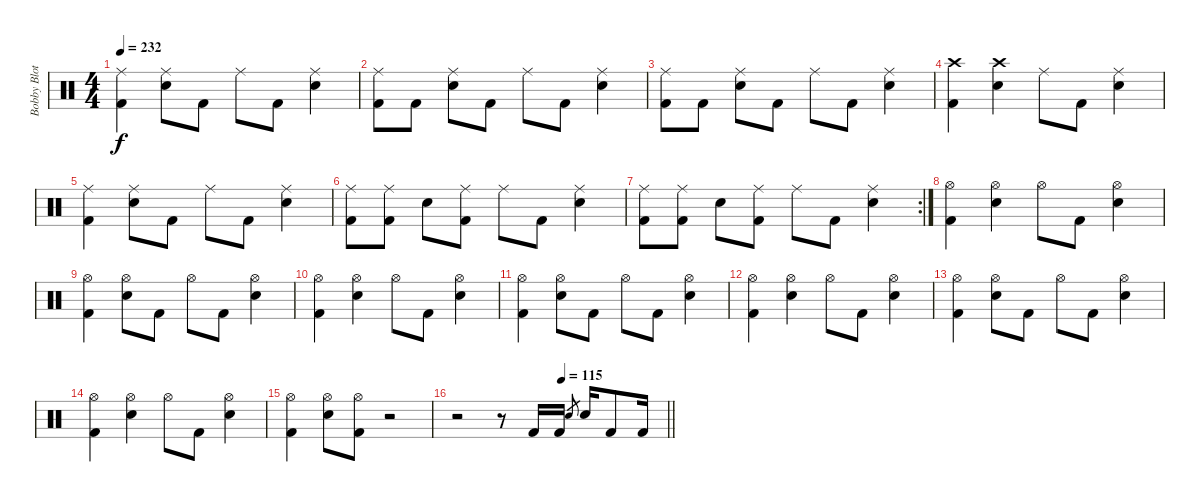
\track ("Bobby Blotzer" "Bobby Blot") {instrument percussion}
\staff {score}
\articulation defaults
\ts (4 4)
\tempo 232
\clef neutral
\ks c
("Ride (middle)" "Kick (hit) 2").4{dy f} ("Ride (middle)" "Electric Snare (hit)").8 "Kick (hit) 2".8 "Ride (middle)".8 "Kick (hit) 2".8 ("Ride (middle)" "Electric Snare (hit)").4 |
("Ride (middle)" "Kick (hit) 2").8 "Kick (hit) 2".8 ("Ride (middle)" "Electric Snare (hit)").8 "Kick (hit) 2".8 "Ride (middle)".8 "Kick (hit) 2".8 ("Ride (middle)" "Electric Snare (hit)").4 |
("Ride (middle)" "Kick (hit) 2").8 "Kick (hit) 2".8 ("Ride (middle)" "Electric Snare (hit)").8 "Kick (hit) 2".8 "Ride (middle)".8 "Kick (hit) 2".8 ("Ride (middle)" "Electric Snare (hit)").4 |
("Crash high (hit)" "Kick (hit) 2").4 ("Crash high (hit)" "Electric Snare (hit)").4 "Ride (middle)".8 "Kick (hit) 2".8 ("Ride (middle)" "Electric Snare (hit)").4 |
("Ride (middle)" "Kick (hit) 2").4 ("Ride (middle)" "Electric Snare (hit)").8 "Kick (hit) 2".8 "Ride (middle)".8 "Kick (hit) 2".8 ("Ride (middle)" "Electric Snare (hit)").4 |
("Ride (middle)" "Kick (hit) 2").8 ("Ride (middle)" "Kick (hit) 2").8 "Electric Snare (hit)".8 ("Ride (middle)" "Kick (hit) 2").8 "Ride (middle)".8 "Kick (hit) 2".8 ("Ride (middle)" "Electric Snare (hit)").4 |
\rc 2
("Ride (middle)" "Kick (hit) 2").8 ("Ride (middle)" "Kick (hit) 2").8 "Electric Snare (hit)".8 ("Ride (middle)" "Kick (hit) 2").8 "Ride (middle)".8 "Kick (hit) 2".8 ("Ride (middle)" "Electric Snare (hit)").4 |
("Hi-Hat (open)" "Kick (hit) 2").4 ("Hi-Hat (open)" "Electric Snare (hit)").4 "Hi-Hat (open)".8 "Kick (hit) 2".8 ("Hi-Hat (open)" "Electric Snare (hit)").4 |
("Hi-Hat (open)" "Kick (hit) 2").4 ("Hi-Hat (open)" "Electric Snare (hit)").8 "Kick (hit) 2".8 "Hi-Hat (open)".8 "Kick (hit) 2".8 ("Hi-Hat (open)" "Electric Snare (hit)").4 |
("Hi-Hat (open)" "Kick (hit) 2").4 ("Hi-Hat (open)" "Electric Snare (hit)").4 "Hi-Hat (open)".8 "Kick (hit) 2".8 ("Hi-Hat (open)" "Electric Snare (hit)").4 |
("Hi-Hat (open)" "Kick (hit) 2").4 ("Hi-Hat (open)" "Electric Snare (hit)").8 "Kick (hit) 2".8 "Hi-Hat (open)".8 "Kick (hit) 2".8 ("Hi-Hat (open)" "Electric Snare (hit)").4 |
("Hi-Hat (open)" "Kick (hit) 2").4 ("Hi-Hat (open)" "Electric Snare (hit)").4 "Hi-Hat (open)".8 "Kick (hit) 2".8 ("Hi-Hat (open)" "Electric Snare (hit)").4 |
("Hi-Hat (open)" "Kick (hit) 2").4 ("Hi-Hat (open)" "Electric Snare (hit)").8 "Kick (hit) 2".8 "Hi-Hat (open)".8 "Kick (hit) 2".8 ("Hi-Hat (open)" "Electric Snare (hit)").4 |
("Hi-Hat (open)" "Kick (hit) 2").4 ("Hi-Hat (open)" "Electric Snare (hit)").4 "Hi-Hat (open)".8 "Kick (hit) 2".8 ("Hi-Hat (open)" "Electric Snare (hit)").4 |
("Hi-Hat (open)" "Kick (hit) 2").4 ("Hi-Hat (open)" "Electric Snare (hit)").8 ("Hi-Hat (open)" "Kick (hit) 2").8 r.2 |
\tempo (115 0.5)
\barLineRight lightlight
r.2 r.8 "Kick (hit) 2".16 "Kick (hit) 2".16 "Electric Snare (hit)".8{gr} "Electric Snare (hit)".16 "Kick (hit) 2".8 "Kick (hit) 2".16
